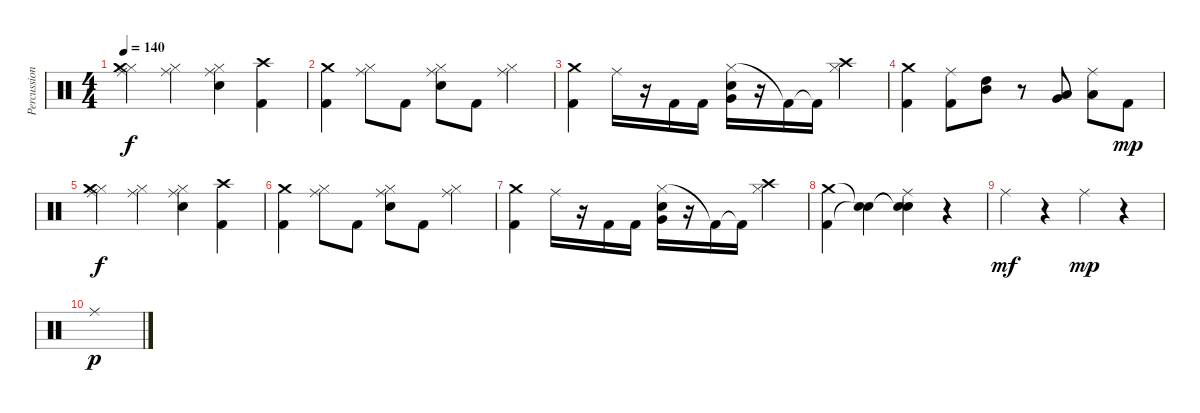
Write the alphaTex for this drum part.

\track ("Percussion" "Percussion") {instrument percussion}
\staff {score}
\articulation defaults
\ts (4 4)
\tempo 140
\clef neutral
\ks c
("Hi-Hat (closed)" "Crash medium (hit)" "Ride (middle)").4{dy f} ("Hi-Hat (closed)" "Ride (middle)").4 ("Hi-Hat (closed)" "Electric Snare (hit)" "Ride (middle)").4 ("Crash high (hit)" "Kick (hit) 2").4 |
("Crash medium (hit)" "Kick (hit) 2").4 ("Hi-Hat (closed)" "Ride (middle)").8 "Kick (hit) 2".8 ("Hi-Hat (closed)" "Electric Snare (hit)" "Ride (middle)").8 "Kick (hit) 2".8 ("Hi-Hat (closed)" "Ride (middle)").4 |
("Crash medium (hit)" "Kick (hit) 2").4 "Ride (middle)".16 r.16 "Kick (hit) 2".16 "Kick (hit) 2".16 ("Hi-Hat (closed)" "Very Low Tom (hit)" "Electric Snare (hit)").16 r.16 "Kick (hit) 2"{t}.16 "Kick (hit) 2"{t}.16 ("Hi-Hat (closed)" "Crash high (hit)").4 |
("Crash medium (hit)" "Kick (hit) 2").4 ("Kick (hit) 2" "Ride (middle)").8 ("High Tom (hit)" "Mid Tom (hit)").8 r.8 ("Low Tom (hit)" "Very Low Tom (hit)").8 ("Low Floor Tom (hit)" "Ride (middle)").8 "Kick (hit) 2".8{dy mp} |
("Hi-Hat (closed)" "Crash medium (hit)" "Ride (middle)").4{dy f} ("Hi-Hat (closed)" "Ride (middle)").4 ("Hi-Hat (closed)" "Electric Snare (hit)" "Ride (middle)").4 ("Crash high (hit)" "Kick (hit) 2").4 |
("Crash medium (hit)" "Kick (hit) 2").4 ("Hi-Hat (closed)" "Ride (middle)").8 "Kick (hit) 2".8 ("Hi-Hat (closed)" "Electric Snare (hit)" "Ride (middle)").8 "Kick (hit) 2".8 ("Hi-Hat (closed)" "Ride (middle)").4 |
("Crash medium (hit)" "Kick (hit) 2").4 "Ride (middle)".16 r.16 "Kick (hit) 2".16 "Kick (hit) 2".16 ("Hi-Hat (closed)" "Very Low Tom (hit)" "Electric Snare (hit)").16 r.16 "Kick (hit) 2"{t}.16 "Kick (hit) 2"{t}.16 ("Hi-Hat (closed)" "Crash high (hit)").4 |
("Crash medium (hit)" "Kick (hit) 2").4 ("Snare (hit)"{t} "Snare (hit)"{t}).4 ("Snare (hit)"{t} "Snare (hit)"{t} "Ride (middle)").4 r.4 |
"Ride (middle)".4{dy mf} r.4 "Ride (middle)".4{dy mp} r.4 |
"Ride (middle)".1{dy p}
